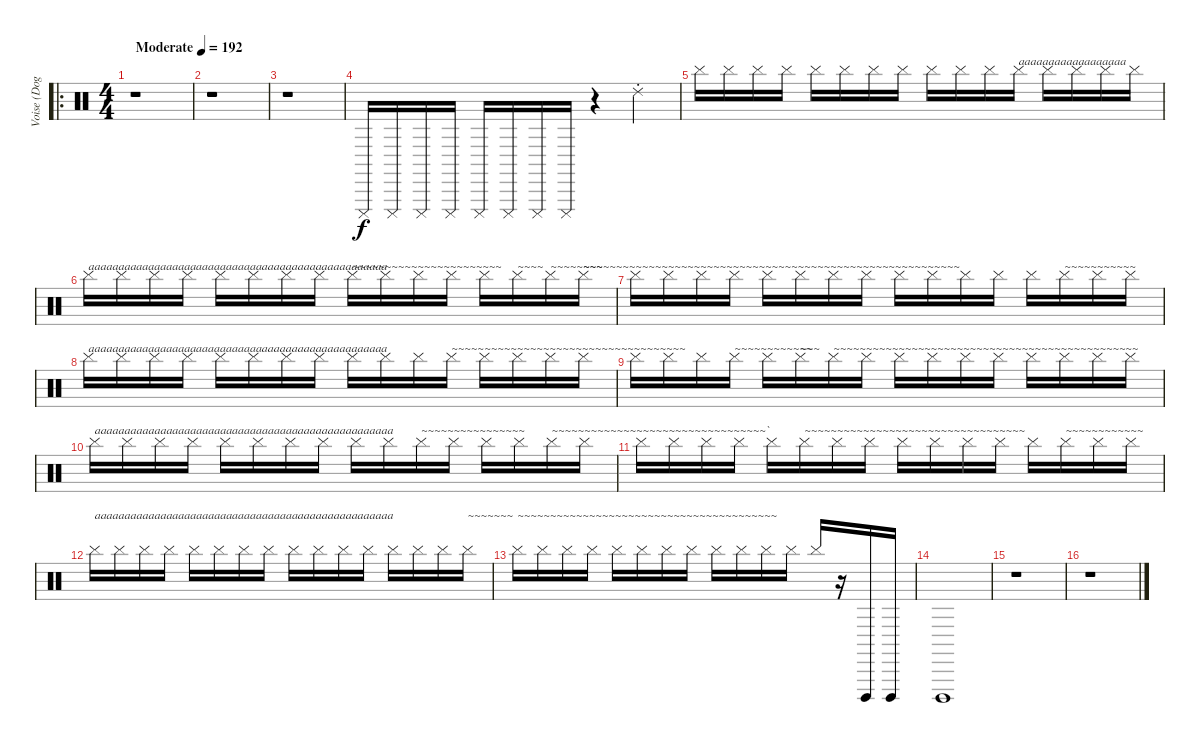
\track ("Voise (Dog)" "Voise (Dog") {instrument percussion}
\staff {score}
\articulation defaults
\ro
\ts (4 4)
\tempo (192 "Moderate")
\clef neutral
\ks c
r.1{dy f} |
r.1 |
r.1 |
"Cuica (mute)".16 "Cuica (mute)".16 "Cuica (mute)".16 "Cuica (mute)".16 "Cuica (mute)".16 "Cuica (mute)".16 "Cuica (mute)".16 "Cuica (mute)".16 r.4 "Ride (choke) 2".4 |
"Cymbal (hit)".16 "Cymbal (hit)".16 "Cymbal (hit)".16 "Cymbal (hit)".16 "Cymbal (hit)".16 "Cymbal (hit)".16 "Cymbal (hit)".16 "Cymbal (hit)".16 "Cymbal (hit)".16 "Cymbal (hit)".16 "Cymbal (hit)".16 "Cymbal (hit)".16{txt "aaaaaaaaaaaaaaaaaa"} "Cymbal (hit)".16 "Cymbal (hit)".16 "Cymbal (hit)".16 "Cymbal (hit)".16 |
"Cymbal (hit)".16{txt "aaaaaaaaaaaaaaaaaaaaaaaaaaaaaaaaaaaaaaaaaaaaaaaaaa"} "Cymbal (hit)".16 "Cymbal (hit)".16 "Cymbal (hit)".16 "Cymbal (hit)".16 "Cymbal (hit)".16 "Cymbal (hit)".16 "Cymbal (hit)".16 "Cymbal (hit)".16{txt "~~~~~~~~~~~~~~~~~~~~~~~"} "Cymbal (hit)".16 "Cymbal (hit)".16 "Cymbal (hit)".16 "Cymbal (hit)".16 "Cymbal (hit)".16{txt "~~~~"} "Cymbal (hit)".16{txt "~~~~~~~~"} "Cymbal (hit)".16{txt "~~~~~~~~"} |
"Cymbal (hit)".16{txt "~~~~~~~~~~~~~~~~~~~~~~~~~~~~~~~~~~~~~~~~~~~~~~~~~~"} "Cymbal (hit)".16 "Cymbal (hit)".16 "Cymbal (hit)".16 "Cymbal (hit)".16 "Cymbal (hit)".16 "Cymbal (hit)".16 "Cymbal (hit)".16 "Cymbal (hit)".16 "Cymbal (hit)".16 "Cymbal (hit)".16 "Cymbal (hit)".16 "Cymbal (hit)".16 "Cymbal (hit)".16{txt "~~~~~~~~~~~"} "Cymbal (hit)".16 "Cymbal (hit)".16 |
"Cymbal (hit)".16{txt "aaaaaaaaaaaaaaaaaaaaaaaaaaaaaaaaaaaaaaaaaaaaaaaaaa"} "Cymbal (hit)".16 "Cymbal (hit)".16 "Cymbal (hit)".16 "Cymbal (hit)".16 "Cymbal (hit)".16 "Cymbal (hit)".16 "Cymbal (hit)".16 "Cymbal (hit)".16 "Cymbal (hit)".16 "Cymbal (hit)".16 "Cymbal (hit)".16{txt "~~~~~"} "Cymbal (hit)".16{txt "~~~~~~~~~~~~~~~~~~~~~~~~~~~~~~~"} "Cymbal (hit)".16 "Cymbal (hit)".16 "Cymbal (hit)".16 |
"Cymbal (hit)".16 "Cymbal (hit)".16 "Cymbal (hit)".16 "Cymbal (hit)".16{txt "~~~~~~~~~~~~"} "Cymbal (hit)".16 "Cymbal (hit)".16{txt "~~~"} "Cymbal (hit)".16{txt "~~~~~~~~~~~~~~~~~~~~~~~~~~~~~~~~~~~~~~~~~~~~~~~"} "Cymbal (hit)".16 "Cymbal (hit)".16 "Cymbal (hit)".16 "Cymbal (hit)".16 "Cymbal (hit)".16 "Cymbal (hit)".16 "Cymbal (hit)".16 "Cymbal (hit)".16 "Cymbal (hit)".16 |
"Cymbal (hit)".16{txt "aaaaaaaaaaaaaaaaaaaaaaaaaaaaaaaaaaaaaaaaaaaaaaaaaa"} "Cymbal (hit)".16 "Cymbal (hit)".16 "Cymbal (hit)".16 "Cymbal (hit)".16 "Cymbal (hit)".16 "Cymbal (hit)".16 "Cymbal (hit)".16 "Cymbal (hit)".16 "Cymbal (hit)".16 "Cymbal (hit)".16{txt "~~~~~~~~~~~~~~~~"} "Cymbal (hit)".16 "Cymbal (hit)".16 "Cymbal (hit)".16 "Cymbal (hit)".16{txt "~~~~~~~~~~~~~~~~~~~~~~~~~~~~~~~~~`"} "Cymbal (hit)".16 |
"Cymbal (hit)".16 "Cymbal (hit)".16 "Cymbal (hit)".16 "Cymbal (hit)".16 "Cymbal (hit)".16 "Cymbal (hit)".16{txt "~~~~~~~~~~~~~~~~~~~~~~~~~~~~~~~~~~"} "Cymbal (hit)".16 "Cymbal (hit)".16 "Cymbal (hit)".16 "Cymbal (hit)".16 "Cymbal (hit)".16 "Cymbal (hit)".16 "Cymbal (hit)".16 "Cymbal (hit)".16{txt "~~~~~~~~~~~~"} "Cymbal (hit)".16 "Cymbal (hit)".16 |
"Cymbal (hit)".16{txt "aaaaaaaaaaaaaaaaaaaaaaaaaaaaaaaaaaaaaaaaaaaaaaaaaa"} "Cymbal (hit)".16 "Cymbal (hit)".16 "Cymbal (hit)".16 "Cymbal (hit)".16 "Cymbal (hit)".16 "Cymbal (hit)".16 "Cymbal (hit)".16 "Cymbal (hit)".16 "Cymbal (hit)".16 "Cymbal (hit)".16 "Cymbal (hit)".16 "Cymbal (hit)".16 "Cymbal (hit)".16 "Cymbal (hit)".16 "Cymbal (hit)".16{txt "~~~~~~~"} |
"Cymbal (hit)".16{txt "~~~~~~~~~~~~~~~~~~~~~~~~~~~~~~~~~~~~~~~~"} "Cymbal (hit)".16 "Cymbal (hit)".16 "Cymbal (hit)".16 "Cymbal (hit)".16 "Cymbal (hit)".16 "Cymbal (hit)".16 "Cymbal (hit)".16 "Cymbal (hit)".16 "Cymbal (hit)".16 "Cymbal (hit)".16 "Cymbal (hit)".16 "Cymbal (hit)".16 r.16 "Cuica (open)".16 "Cuica (open)".16 |
"Cuica (open)".1 |
r.1 |
r.1
